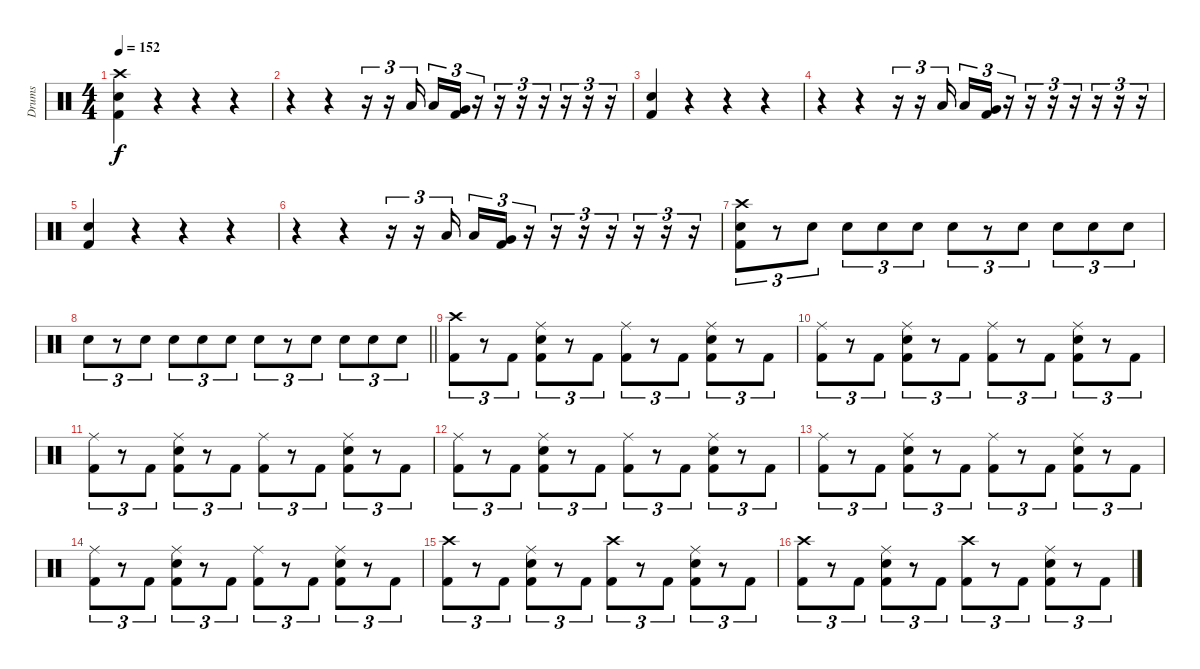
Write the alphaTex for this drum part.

\track ("Drums" "Drums") {instrument percussion}
\staff {score}
\articulation defaults
\ts (4 4)
\tempo 152
\clef neutral
\ks c
("Crash high (hit)" "Snare (hit) 2" "Kick (hit) 2").4{dy f} r.4 r.4 r.4 |
r.4 r.4 r.16{tu (3 2)} r.16{tu (3 2)} "Low Tom (hit)".16{tu (3 2) beam splitsecondary} "Low Tom (hit)".16{tu (3 2)} ("Very Low Tom (hit)" "Kick (hit) 2").16{tu (3 2)} r.16{tu (3 2)} r.16{tu (3 2)} r.16{tu (3 2)} r.16{tu (3 2)} r.16{tu (3 2)} r.16{tu (3 2)} r.16{tu (3 2)} |
("Snare (hit) 2" "Kick (hit) 2").4 r.4 r.4 r.4 |
r.4 r.4 r.16{tu (3 2)} r.16{tu (3 2)} "Low Tom (hit)".16{tu (3 2) beam splitsecondary} "Low Tom (hit)".16{tu (3 2)} ("Very Low Tom (hit)" "Kick (hit) 2").16{tu (3 2)} r.16{tu (3 2)} r.16{tu (3 2)} r.16{tu (3 2)} r.16{tu (3 2)} r.16{tu (3 2)} r.16{tu (3 2)} r.16{tu (3 2)} |
("Snare (hit) 2" "Kick (hit) 2").4 r.4 r.4 r.4 |
r.4 r.4 r.16{tu (3 2)} r.16{tu (3 2)} "Low Tom (hit)".16{tu (3 2) beam splitsecondary} "Low Tom (hit)".16{tu (3 2)} ("Very Low Tom (hit)" "Kick (hit) 2").16{tu (3 2)} r.16{tu (3 2)} r.16{tu (3 2)} r.16{tu (3 2)} r.16{tu (3 2)} r.16{tu (3 2)} r.16{tu (3 2)} r.16{tu (3 2)} |
("Crash high (hit)" "Snare (hit) 2" "Kick (hit) 2").8{tu (3 2)} r.8{tu (3 2)} "Snare (hit) 2".8{tu (3 2)} "Snare (hit) 2".8{tu (3 2)} "Snare (hit) 2".8{tu (3 2)} "Snare (hit) 2".8{tu (3 2)} "Snare (hit) 2".8{tu (3 2)} r.8{tu (3 2)} "Snare (hit) 2".8{tu (3 2)} "Snare (hit) 2".8{tu (3 2)} "Snare (hit) 2".8{tu (3 2)} "Snare (hit) 2".8{tu (3 2)} |
\barLineRight lightlight "Snare (hit) 2".8{tu (3 2)}
r.8{tu (3 2)} "Snare (hit) 2".8{tu (3 2)} "Snare (hit) 2".8{tu (3 2)} "Snare (hit) 2".8{tu (3 2)} "Snare (hit) 2".8{tu (3 2)} "Snare (hit) 2".8{tu (3 2)} r.8{tu (3 2)} "Snare (hit) 2".8{tu (3 2)} "Snare (hit) 2".8{tu (3 2)} "Snare (hit) 2".8{tu (3 2)} "Snare (hit) 2".8{tu (3 2)} |
("Crash high (hit)" "Kick (hit) 2").8{tu (3 2)} r.8{tu (3 2)} "Kick (hit) 2".8{tu (3 2)} ("Ride (middle)" "Snare (hit) 2" "Kick (hit) 2").8{tu (3 2)} r.8{tu (3 2)} "Kick (hit) 2".8{tu (3 2)} ("Ride (middle)" "Kick (hit) 2").8{tu (3 2)} r.8{tu (3 2)} "Kick (hit) 2".8{tu (3 2)} ("Ride (middle)" "Snare (hit) 2" "Kick (hit) 2").8{tu (3 2)} r.8{tu (3 2)} "Kick (hit) 2".8{tu (3 2)} |
("Ride (middle)" "Kick (hit) 2").8{tu (3 2)} r.8{tu (3 2)} "Kick (hit) 2".8{tu (3 2)} ("Ride (middle)" "Snare (hit) 2" "Kick (hit) 2").8{tu (3 2)} r.8{tu (3 2)} "Kick (hit) 2".8{tu (3 2)} ("Ride (middle)" "Kick (hit) 2").8{tu (3 2)} r.8{tu (3 2)} "Kick (hit) 2".8{tu (3 2)} ("Ride (middle)" "Snare (hit) 2" "Kick (hit) 2").8{tu (3 2)} r.8{tu (3 2)} "Kick (hit) 2".8{tu (3 2)} |
("Ride (middle)" "Kick (hit) 2").8{tu (3 2)} r.8{tu (3 2)} "Kick (hit) 2".8{tu (3 2)} ("Ride (middle)" "Snare (hit) 2" "Kick (hit) 2").8{tu (3 2)} r.8{tu (3 2)} "Kick (hit) 2".8{tu (3 2)} ("Ride (middle)" "Kick (hit) 2").8{tu (3 2)} r.8{tu (3 2)} "Kick (hit) 2".8{tu (3 2)} ("Ride (middle)" "Snare (hit) 2" "Kick (hit) 2").8{tu (3 2)} r.8{tu (3 2)} "Kick (hit) 2".8{tu (3 2)} |
("Ride (middle)" "Kick (hit) 2").8{tu (3 2)} r.8{tu (3 2)} "Kick (hit) 2".8{tu (3 2)} ("Ride (middle)" "Snare (hit) 2" "Kick (hit) 2").8{tu (3 2)} r.8{tu (3 2)} "Kick (hit) 2".8{tu (3 2)} ("Ride (middle)" "Kick (hit) 2").8{tu (3 2)} r.8{tu (3 2)} "Kick (hit) 2".8{tu (3 2)} ("Ride (middle)" "Snare (hit) 2" "Kick (hit) 2").8{tu (3 2)} r.8{tu (3 2)} "Kick (hit) 2".8{tu (3 2)} |
("Ride (middle)" "Kick (hit) 2").8{tu (3 2)} r.8{tu (3 2)} "Kick (hit) 2".8{tu (3 2)} ("Ride (middle)" "Snare (hit) 2" "Kick (hit) 2").8{tu (3 2)} r.8{tu (3 2)} "Kick (hit) 2".8{tu (3 2)} ("Ride (middle)" "Kick (hit) 2").8{tu (3 2)} r.8{tu (3 2)} "Kick (hit) 2".8{tu (3 2)} ("Ride (middle)" "Snare (hit) 2" "Kick (hit) 2").8{tu (3 2)} r.8{tu (3 2)} "Kick (hit) 2".8{tu (3 2)} |
("Ride (middle)" "Kick (hit) 2").8{tu (3 2)} r.8{tu (3 2)} "Kick (hit) 2".8{tu (3 2)} ("Ride (middle)" "Snare (hit) 2" "Kick (hit) 2").8{tu (3 2)} r.8{tu (3 2)} "Kick (hit) 2".8{tu (3 2)} ("Ride (middle)" "Kick (hit) 2").8{tu (3 2)} r.8{tu (3 2)} "Kick (hit) 2".8{tu (3 2)} ("Ride (middle)" "Snare (hit) 2" "Kick (hit) 2").8{tu (3 2)} r.8{tu (3 2)} "Kick (hit) 2".8{tu (3 2)} |
("Crash high (hit)" "Kick (hit) 2").8{tu (3 2)} r.8{tu (3 2)} "Kick (hit) 2".8{tu (3 2)} ("Ride (middle)" "Snare (hit) 2" "Kick (hit) 2").8{tu (3 2)} r.8{tu (3 2)} "Kick (hit) 2".8{tu (3 2)} ("Crash high (hit)" "Kick (hit) 2").8{tu (3 2)} r.8{tu (3 2)} "Kick (hit) 2".8{tu (3 2)} ("Ride (middle)" "Snare (hit) 2" "Kick (hit) 2").8{tu (3 2)} r.8{tu (3 2)} "Kick (hit) 2".8{tu (3 2)} |
("Crash high (hit)" "Kick (hit) 2").8{tu (3 2)} r.8{tu (3 2)} "Kick (hit) 2".8{tu (3 2)} ("Ride (middle)" "Snare (hit) 2" "Kick (hit) 2").8{tu (3 2)} r.8{tu (3 2)} "Kick (hit) 2".8{tu (3 2)} ("Crash high (hit)" "Kick (hit) 2").8{tu (3 2)} r.8{tu (3 2)} "Kick (hit) 2".8{tu (3 2)} ("Ride (middle)" "Snare (hit) 2" "Kick (hit) 2").8{tu (3 2)} r.8{tu (3 2)} "Kick (hit) 2".8{tu (3 2)}
